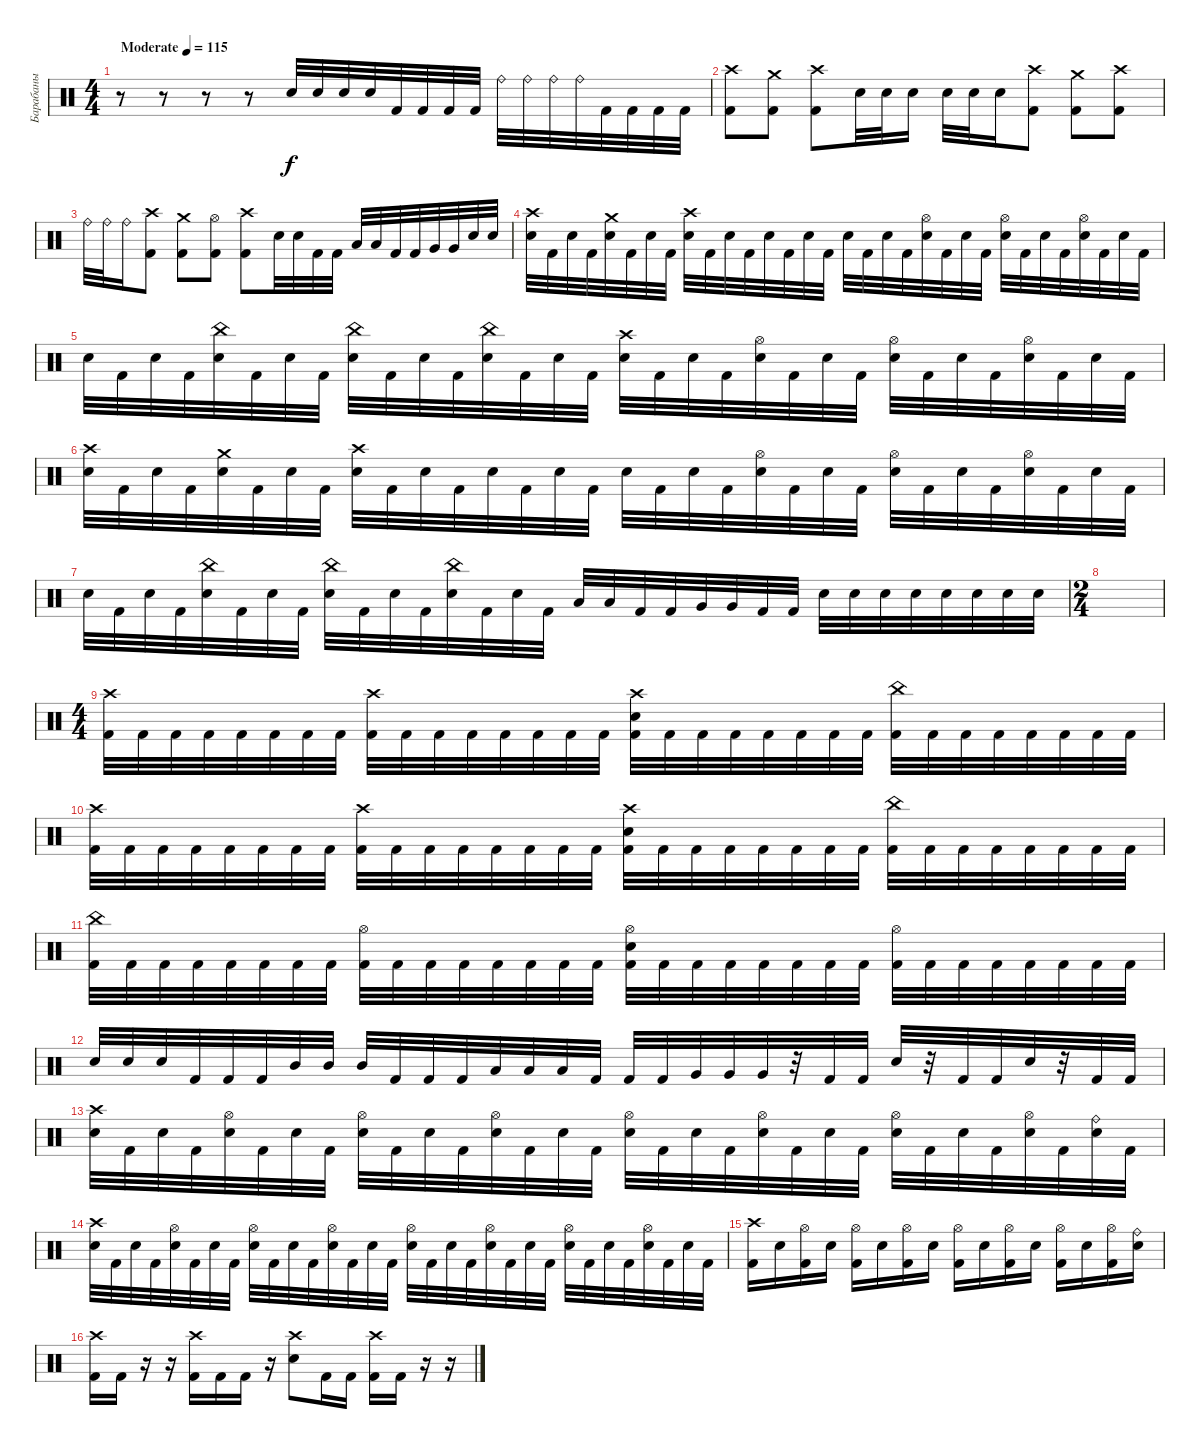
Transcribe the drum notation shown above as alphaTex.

\track ("Барабаны" "Барабаны") {instrument percussion}
\staff {score}
\articulation defaults
\ts (4 4)
\tempo (115 "Moderate")
\clef neutral
\ks c
r.8{dy f} r.8 r.8 r.8 "Electric Snare (hit)".32 "Electric Snare (hit)".32 "Electric Snare (hit)".32 "Electric Snare (hit)".32 "Kick (hit) 2".32 "Kick (hit) 2".32 "Kick (hit) 2".32 "Kick (hit) 2".32 "Ride (bell)".32 "Ride (bell)".32 "Ride (bell)".32 "Ride (bell)".32 "Kick (hit) 2".32 "Kick (hit) 2".32 "Kick (hit) 2".32 "Kick (hit) 2".32 |
("Crash high (hit)" "Kick (hit) 2").8 ("Crash medium (hit)" "Kick (hit) 2").8 ("Crash high (hit)" "Kick (hit) 2").8 "Electric Snare (hit)".32 "Electric Snare (hit)".32 "Electric Snare (hit)".16 "Electric Snare (hit)".32 "Electric Snare (hit)".32 "Electric Snare (hit)".16 ("Crash high (hit)" "Kick (hit) 2").8 ("Crash medium (hit)" "Kick (hit) 2").8 ("Crash high (hit)" "Kick (hit) 2").8 |
"Ride (bell)".32 "Ride (bell)".32 "Ride (bell)".16 ("Crash high (hit)" "Kick (hit) 2").8 ("Crash medium (hit)" "Kick (hit) 2").8 ("Hi-Hat (open)" "Kick (hit) 2").8 ("Crash high (hit)" "Kick (hit) 2").8 "Electric Snare (hit)".32 "Electric Snare (hit)".32 "Kick (hit) 2".32 "Kick (hit) 2".32 "Low Tom (hit)".32 "Low Tom (hit)".32 "Kick (hit) 2".32 "Kick (hit) 2".32 "Very Low Tom (hit)".32 "Very Low Tom (hit)".32 "Electric Snare (hit)".32 "Electric Snare (hit)".32 |
("Crash high (hit)" "Electric Snare (hit)").32 "Kick (hit) 2".32 "Electric Snare (hit)".32 "Kick (hit) 2".32 ("Crash medium (hit)" "Electric Snare (hit)").32 "Kick (hit) 2".32 "Electric Snare (hit)".32 "Kick (hit) 2".32 ("Crash high (hit)" "Electric Snare (hit)").32 "Kick (hit) 2".32 "Electric Snare (hit)".32 "Kick (hit) 2".32 "Electric Snare (hit)".32 "Kick (hit) 2".32 "Electric Snare (hit)".32 "Kick (hit) 2".32 "Electric Snare (hit)".32 "Kick (hit) 2".32 "Electric Snare (hit)".32 "Kick (hit) 2".32 ("Hi-Hat (open)" "Electric Snare (hit)").32 "Kick (hit) 2".32 "Electric Snare (hit)".32 "Kick (hit) 2".32 ("Hi-Hat (open)" "Electric Snare (hit)").32 "Kick (hit) 2".32 "Electric Snare (hit)".32 "Kick (hit) 2".32 ("Hi-Hat (open)" "Electric Snare (hit)").32 "Kick (hit) 2".32 "Electric Snare (hit)".32 "Kick (hit) 2".32 |
"Electric Snare (hit)".32 "Kick (hit) 2".32 "Electric Snare (hit)".32 "Kick (hit) 2".32 ("China (hit)" "Electric Snare (hit)").32 "Kick (hit) 2".32 "Electric Snare (hit)".32 "Kick (hit) 2".32 ("China (hit)" "Electric Snare (hit)").32 "Kick (hit) 2".32 "Electric Snare (hit)".32 "Kick (hit) 2".32 ("China (hit)" "Electric Snare (hit)").32 "Kick (hit) 2".32 "Electric Snare (hit)".32 "Kick (hit) 2".32 ("Crash high (hit)" "Electric Snare (hit)").32 "Kick (hit) 2".32 "Electric Snare (hit)".32 "Kick (hit) 2".32 ("Hi-Hat (open)" "Electric Snare (hit)").32 "Kick (hit) 2".32 "Electric Snare (hit)".32 "Kick (hit) 2".32 ("Hi-Hat (open)" "Electric Snare (hit)").32 "Kick (hit) 2".32 "Electric Snare (hit)".32 "Kick (hit) 2".32 ("Hi-Hat (open)" "Electric Snare (hit)").32 "Kick (hit) 2".32 "Electric Snare (hit)".32 "Kick (hit) 2".32 |
("Crash high (hit)" "Electric Snare (hit)").32 "Kick (hit) 2".32 "Electric Snare (hit)".32 "Kick (hit) 2".32 ("Crash medium (hit)" "Electric Snare (hit)").32 "Kick (hit) 2".32 "Electric Snare (hit)".32 "Kick (hit) 2".32 ("Crash high (hit)" "Electric Snare (hit)").32 "Kick (hit) 2".32 "Electric Snare (hit)".32 "Kick (hit) 2".32 "Electric Snare (hit)".32 "Kick (hit) 2".32 "Electric Snare (hit)".32 "Kick (hit) 2".32 "Electric Snare (hit)".32 "Kick (hit) 2".32 "Electric Snare (hit)".32 "Kick (hit) 2".32 ("Hi-Hat (open)" "Electric Snare (hit)").32 "Kick (hit) 2".32 "Electric Snare (hit)".32 "Kick (hit) 2".32 ("Hi-Hat (open)" "Electric Snare (hit)").32 "Kick (hit) 2".32 "Electric Snare (hit)".32 "Kick (hit) 2".32 ("Hi-Hat (open)" "Electric Snare (hit)").32 "Kick (hit) 2".32 "Electric Snare (hit)".32 "Kick (hit) 2".32 |
"Electric Snare (hit)".32 "Kick (hit) 2".32 "Electric Snare (hit)".32 "Kick (hit) 2".32 ("China (hit)" "Electric Snare (hit)").32 "Kick (hit) 2".32 "Electric Snare (hit)".32 "Kick (hit) 2".32 ("China (hit)" "Electric Snare (hit)").32 "Kick (hit) 2".32 "Electric Snare (hit)".32 "Kick (hit) 2".32 ("China (hit)" "Electric Snare (hit)").32 "Kick (hit) 2".32 "Electric Snare (hit)".32 "Kick (hit) 2".32 "Low Tom (hit)".32 "Low Tom (hit)".32 "Kick (hit) 2".32 "Kick (hit) 2".32 "Very Low Tom (hit)".32 "Very Low Tom (hit)".32 "Kick (hit) 2".32 "Kick (hit) 2".32 "Electric Snare (hit)".32 "Electric Snare (hit)".32 "Electric Snare (hit)".32 "Electric Snare (hit)".32 "Electric Snare (hit)".32 "Electric Snare (hit)".32 "Electric Snare (hit)".32 "Electric Snare (hit)".32 |
\ts (2 4)
|
\ts (4 4)
("Crash high (hit)" "Kick (hit) 2").32 "Kick (hit) 2".32 "Kick (hit) 2".32 "Kick (hit) 2".32 "Kick (hit) 2".32 "Kick (hit) 2".32 "Kick (hit) 2".32 "Kick (hit) 2".32 ("Crash high (hit)" "Kick (hit) 2").32 "Kick (hit) 2".32 "Kick (hit) 2".32 "Kick (hit) 2".32 "Kick (hit) 2".32 "Kick (hit) 2".32 "Kick (hit) 2".32 "Kick (hit) 2".32 ("Crash high (hit)" "Electric Snare (hit)" "Kick (hit) 2").32 "Kick (hit) 2".32 "Kick (hit) 2".32 "Kick (hit) 2".32 "Kick (hit) 2".32 "Kick (hit) 2".32 "Kick (hit) 2".32 "Kick (hit) 2".32 ("China (hit)" "Kick (hit) 2").32 "Kick (hit) 2".32 "Kick (hit) 2".32 "Kick (hit) 2".32 "Kick (hit) 2".32 "Kick (hit) 2".32 "Kick (hit) 2".32 "Kick (hit) 2".32 |
("Crash high (hit)" "Kick (hit) 2").32 "Kick (hit) 2".32 "Kick (hit) 2".32 "Kick (hit) 2".32 "Kick (hit) 2".32 "Kick (hit) 2".32 "Kick (hit) 2".32 "Kick (hit) 2".32 ("Crash high (hit)" "Kick (hit) 2").32 "Kick (hit) 2".32 "Kick (hit) 2".32 "Kick (hit) 2".32 "Kick (hit) 2".32 "Kick (hit) 2".32 "Kick (hit) 2".32 "Kick (hit) 2".32 ("Crash high (hit)" "Electric Snare (hit)" "Kick (hit) 2").32 "Kick (hit) 2".32 "Kick (hit) 2".32 "Kick (hit) 2".32 "Kick (hit) 2".32 "Kick (hit) 2".32 "Kick (hit) 2".32 "Kick (hit) 2".32 ("China (hit)" "Kick (hit) 2").32 "Kick (hit) 2".32 "Kick (hit) 2".32 "Kick (hit) 2".32 "Kick (hit) 2".32 "Kick (hit) 2".32 "Kick (hit) 2".32 "Kick (hit) 2".32 |
("China (hit)" "Kick (hit) 2").32 "Kick (hit) 2".32 "Kick (hit) 2".32 "Kick (hit) 2".32 "Kick (hit) 2".32 "Kick (hit) 2".32 "Kick (hit) 2".32 "Kick (hit) 2".32 ("Hi-Hat (open)" "Kick (hit) 2").32 "Kick (hit) 2".32 "Kick (hit) 2".32 "Kick (hit) 2".32 "Kick (hit) 2".32 "Kick (hit) 2".32 "Kick (hit) 2".32 "Kick (hit) 2".32 ("Hi-Hat (open)" "Electric Snare (hit)" "Kick (hit) 2").32 "Kick (hit) 2".32 "Kick (hit) 2".32 "Kick (hit) 2".32 "Kick (hit) 2".32 "Kick (hit) 2".32 "Kick (hit) 2".32 "Kick (hit) 2".32 ("Hi-Hat (open)" "Kick (hit) 2").32 "Kick (hit) 2".32 "Kick (hit) 2".32 "Kick (hit) 2".32 "Kick (hit) 2".32 "Kick (hit) 2".32 "Kick (hit) 2".32 "Kick (hit) 2".32 |
"Electric Snare (hit)".32 "Electric Snare (hit)".32 "Electric Snare (hit)".32 "Kick (hit) 2".32 "Kick (hit) 2".32 "Kick (hit) 2".32 "Mid Tom (hit)".32 "Mid Tom (hit)".32 "Mid Tom (hit)".32 "Kick (hit) 2".32 "Kick (hit) 2".32 "Kick (hit) 2".32 "Low Tom (hit)".32 "Low Tom (hit)".32 "Low Tom (hit)".32 "Kick (hit) 2".32 "Kick (hit) 2".32 "Kick (hit) 2".32 "Very Low Tom (hit)".32 "Very Low Tom (hit)".32 "Very Low Tom (hit)".32 r.32 "Kick (hit) 2".32 "Kick (hit) 2".32 "Electric Snare (hit)".32 r.32 "Kick (hit) 2".32 "Kick (hit) 2".32 "Electric Snare (hit)".32 r.32 "Kick (hit) 2".32 "Kick (hit) 2".32 |
("Crash high (hit)" "Electric Snare (hit)").32 "Kick (hit) 2".32 "Electric Snare (hit)".32 "Kick (hit) 2".32 ("Hi-Hat (open)" "Electric Snare (hit)").32 "Kick (hit) 2".32 "Electric Snare (hit)".32 "Kick (hit) 2".32 ("Hi-Hat (open)" "Electric Snare (hit)").32 "Kick (hit) 2".32 "Electric Snare (hit)".32 "Kick (hit) 2".32 ("Hi-Hat (open)" "Electric Snare (hit)").32 "Kick (hit) 2".32 "Electric Snare (hit)".32 "Kick (hit) 2".32 ("Hi-Hat (open)" "Electric Snare (hit)").32 "Kick (hit) 2".32 "Electric Snare (hit)".32 "Kick (hit) 2".32 ("Hi-Hat (open)" "Electric Snare (hit)").32 "Kick (hit) 2".32 "Electric Snare (hit)".32 "Kick (hit) 2".32 ("Hi-Hat (open)" "Electric Snare (hit)").32 "Kick (hit) 2".32 "Electric Snare (hit)".32 "Kick (hit) 2".32 ("Hi-Hat (open)" "Electric Snare (hit)").32 "Kick (hit) 2".32 ("Ride (bell)" "Electric Snare (hit)").32 "Kick (hit) 2".32 |
("Crash high (hit)" "Electric Snare (hit)").32 "Kick (hit) 2".32 "Electric Snare (hit)".32 "Kick (hit) 2".32 ("Hi-Hat (open)" "Electric Snare (hit)").32 "Kick (hit) 2".32 "Electric Snare (hit)".32 "Kick (hit) 2".32 ("Hi-Hat (open)" "Electric Snare (hit)").32 "Kick (hit) 2".32 "Electric Snare (hit)".32 "Kick (hit) 2".32 ("Hi-Hat (open)" "Electric Snare (hit)").32 "Kick (hit) 2".32 "Electric Snare (hit)".32 "Kick (hit) 2".32 ("Hi-Hat (open)" "Electric Snare (hit)").32 "Kick (hit) 2".32 "Electric Snare (hit)".32 "Kick (hit) 2".32 ("Hi-Hat (open)" "Electric Snare (hit)").32 "Kick (hit) 2".32 "Electric Snare (hit)".32 "Kick (hit) 2".32 ("Hi-Hat (open)" "Electric Snare (hit)").32 "Kick (hit) 2".32 "Electric Snare (hit)".32 "Kick (hit) 2".32 ("Hi-Hat (open)" "Electric Snare (hit)").32 "Kick (hit) 2".32 "Electric Snare (hit)".32 "Kick (hit) 2".32 |
("Crash high (hit)" "Kick (hit) 2").16 "Electric Snare (hit)".16 ("Hi-Hat (open)" "Kick (hit) 2").16 "Electric Snare (hit)".16 ("Hi-Hat (open)" "Kick (hit) 2").16 "Electric Snare (hit)".16 ("Hi-Hat (open)" "Kick (hit) 2").16 "Electric Snare (hit)".16 ("Hi-Hat (open)" "Kick (hit) 2").16 "Electric Snare (hit)".16 ("Hi-Hat (open)" "Kick (hit) 2").16 "Electric Snare (hit)".16 ("Hi-Hat (open)" "Kick (hit) 2").16 "Electric Snare (hit)".16 ("Hi-Hat (open)" "Kick (hit) 2").16 ("Ride (bell)" "Electric Snare (hit)").16 |
("Crash high (hit)" "Kick (hit) 2").16 "Kick (hit) 2".16 r.16 r.16 ("Crash high (hit)" "Kick (hit) 2").16 "Kick (hit) 2".16 "Kick (hit) 2".16 r.16 ("Crash high (hit)" "Electric Snare (hit)").8 "Kick (hit) 2".16 "Kick (hit) 2".16 ("Crash high (hit)" "Kick (hit) 2").16 "Kick (hit) 2".16 r.16 r.16
